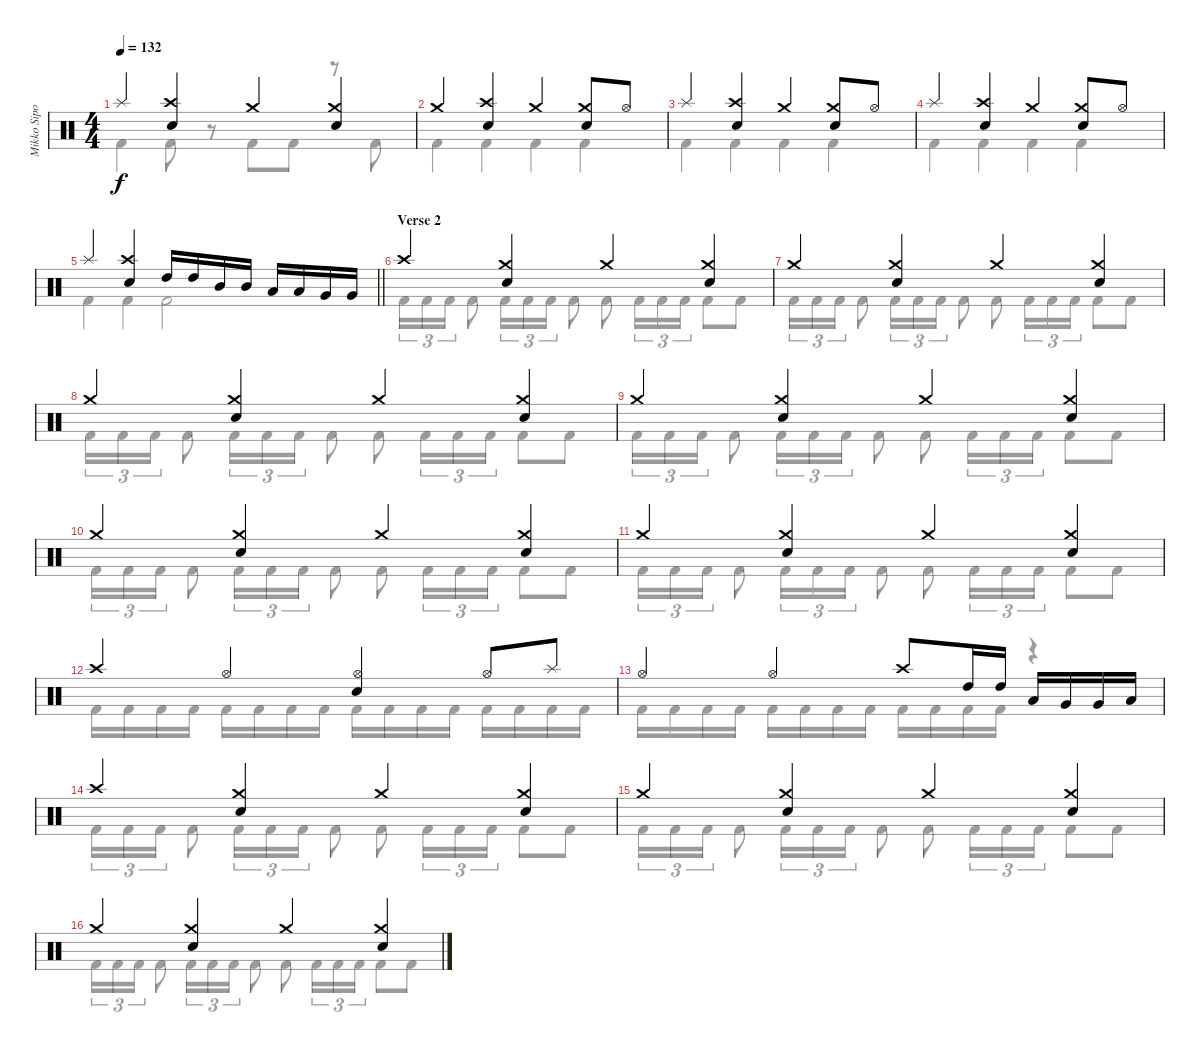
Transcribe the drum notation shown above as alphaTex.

\track ("Mikko Sipola (drums)" "Mikko Sipo") {instrument percussion}
\staff {score}
\articulation defaults
\voice
\ts (4 4)
\tempo 132
\clef neutral
\ks c "Splash (hit)".4{dy f}
("Electric Snare (hit)" "Crash high (hit)").4 "Crash medium (hit)".4 ("Electric Snare (hit)" "Crash medium (hit)").4 |
"Crash medium (hit)".4 ("Electric Snare (hit)" "Crash high (hit)").4 "Crash medium (hit)".4 ("Electric Snare (hit)" "Crash medium (hit)").8 "Hi-Hat (open)".8 |
"Splash (hit)".4 ("Electric Snare (hit)" "Crash high (hit)").4 "Crash medium (hit)".4 ("Electric Snare (hit)" "Crash medium (hit)").8 "Hi-Hat (open)".8 |
"Splash (hit)".4 ("Electric Snare (hit)" "Crash high (hit)").4 "Crash medium (hit)".4 ("Electric Snare (hit)" "Crash medium (hit)").8 "Hi-Hat (open)".8 |
\barLineRight lightlight "Splash (hit)".4
("Electric Snare (hit)" "Crash high (hit)").4 "High Tom (hit)".16 "High Tom (hit)".16 "Mid Tom (hit)".16 "Mid Tom (hit)".16 "Low Tom (hit)".16 "Low Tom (hit)".16 "Very Low Tom (hit)".16 "Very Low Tom (hit)".16 |
\section ("" "Verse 2")
"Crash high (hit)".4 ("Crash medium (hit)" "Electric Snare (hit)").4 "Crash medium (hit)".4 ("Crash medium (hit)" "Electric Snare (hit)").4 |
"Crash medium (hit)".4 ("Crash medium (hit)" "Electric Snare (hit)").4 "Crash medium (hit)".4 ("Crash medium (hit)" "Electric Snare (hit)").4 |
"Crash medium (hit)".4 ("Crash medium (hit)" "Electric Snare (hit)").4 "Crash medium (hit)".4 ("Crash medium (hit)" "Electric Snare (hit)").4 |
"Crash medium (hit)".4 ("Crash medium (hit)" "Electric Snare (hit)").4 "Crash medium (hit)".4 ("Crash medium (hit)" "Electric Snare (hit)").4 |
"Crash medium (hit)".4 ("Crash medium (hit)" "Electric Snare (hit)").4 "Crash medium (hit)".4 ("Crash medium (hit)" "Electric Snare (hit)").4 |
"Crash medium (hit)".4 ("Crash medium (hit)" "Electric Snare (hit)").4 "Crash medium (hit)".4 ("Crash medium (hit)" "Electric Snare (hit)").4 |
"Crash high (hit)".4 "Hi-Hat (open)".4 ("Hi-Hat (open)" "Electric Snare (hit)").4 "Hi-Hat (open)".8 "Splash (hit)".8 |
"Hi-Hat (open)".4 "Hi-Hat (open)".4 "Crash high (hit)".8 "High Tom (hit)".16 "High Tom (hit)".16 "Low Tom (hit)".16 "Very Low Tom (hit)".16 "Very Low Tom (hit)".16 "Low Floor Tom (hit)".16 |
"Crash high (hit)".4 ("Crash medium (hit)" "Electric Snare (hit)").4 "Crash medium (hit)".4 ("Crash medium (hit)" "Electric Snare (hit)").4 |
"Crash medium (hit)".4 ("Crash medium (hit)" "Electric Snare (hit)").4 "Crash medium (hit)".4 ("Crash medium (hit)" "Electric Snare (hit)").4 |
"Crash medium (hit)".4 ("Crash medium (hit)" "Electric Snare (hit)").4 "Crash medium (hit)".4 ("Crash medium (hit)" "Electric Snare (hit)").4
\voice
\clef neutral
\ottava regular
\simile none
\ks c "Kick (hit) 2".4{dy f} "Kick (hit) 2".8
r.8 "Kick (hit) 2".8 "Kick (hit) 2".8 r.8 "Kick (hit) 2".8 |
"Kick (hit) 2".4 "Kick (hit) 2".4 "Kick (hit) 2".4 "Kick (hit) 2".4 |
"Kick (hit) 2".4 "Kick (hit) 2".4 "Kick (hit) 2".4 "Kick (hit) 2".4 |
"Kick (hit) 2".4 "Kick (hit) 2".4 "Kick (hit) 2".4 "Kick (hit) 2".4 |
\barLineRight lightlight "Kick (hit) 2".4 "Kick (hit) 2".4 "Kick (hit) 2".2
|
"Kick (hit) 2".16{tu (3 2)} "Kick (hit) 2".16{tu (3 2)} "Kick (hit) 2".16{tu (3 2)} "Kick (hit) 2".8 "Kick (hit) 2".16{tu (3 2)} "Kick (hit) 2".16{tu (3 2)} "Kick (hit) 2".16{tu (3 2)} "Kick (hit) 2".8 "Kick (hit) 2".8 "Kick (hit) 2".16{tu (3 2)} "Kick (hit) 2".16{tu (3 2)} "Kick (hit) 2".16{tu (3 2)} "Kick (hit) 2".8 "Kick (hit) 2".8 |
"Kick (hit) 2".16{tu (3 2)} "Kick (hit) 2".16{tu (3 2)} "Kick (hit) 2".16{tu (3 2)} "Kick (hit) 2".8 "Kick (hit) 2".16{tu (3 2)} "Kick (hit) 2".16{tu (3 2)} "Kick (hit) 2".16{tu (3 2)} "Kick (hit) 2".8 "Kick (hit) 2".8 "Kick (hit) 2".16{tu (3 2)} "Kick (hit) 2".16{tu (3 2)} "Kick (hit) 2".16{tu (3 2)} "Kick (hit) 2".8 "Kick (hit) 2".8 |
"Kick (hit) 2".16{tu (3 2)} "Kick (hit) 2".16{tu (3 2)} "Kick (hit) 2".16{tu (3 2)} "Kick (hit) 2".8 "Kick (hit) 2".16{tu (3 2)} "Kick (hit) 2".16{tu (3 2)} "Kick (hit) 2".16{tu (3 2)} "Kick (hit) 2".8 "Kick (hit) 2".8 "Kick (hit) 2".16{tu (3 2)} "Kick (hit) 2".16{tu (3 2)} "Kick (hit) 2".16{tu (3 2)} "Kick (hit) 2".8 "Kick (hit) 2".8 |
"Kick (hit) 2".16{tu (3 2)} "Kick (hit) 2".16{tu (3 2)} "Kick (hit) 2".16{tu (3 2)} "Kick (hit) 2".8 "Kick (hit) 2".16{tu (3 2)} "Kick (hit) 2".16{tu (3 2)} "Kick (hit) 2".16{tu (3 2)} "Kick (hit) 2".8 "Kick (hit) 2".8 "Kick (hit) 2".16{tu (3 2)} "Kick (hit) 2".16{tu (3 2)} "Kick (hit) 2".16{tu (3 2)} "Kick (hit) 2".8 "Kick (hit) 2".8 |
"Kick (hit) 2".16{tu (3 2)} "Kick (hit) 2".16{tu (3 2)} "Kick (hit) 2".16{tu (3 2)} "Kick (hit) 2".8 "Kick (hit) 2".16{tu (3 2)} "Kick (hit) 2".16{tu (3 2)} "Kick (hit) 2".16{tu (3 2)} "Kick (hit) 2".8 "Kick (hit) 2".8 "Kick (hit) 2".16{tu (3 2)} "Kick (hit) 2".16{tu (3 2)} "Kick (hit) 2".16{tu (3 2)} "Kick (hit) 2".8 "Kick (hit) 2".8 |
"Kick (hit) 2".16{tu (3 2)} "Kick (hit) 2".16{tu (3 2)} "Kick (hit) 2".16{tu (3 2)} "Kick (hit) 2".8 "Kick (hit) 2".16{tu (3 2)} "Kick (hit) 2".16{tu (3 2)} "Kick (hit) 2".16{tu (3 2)} "Kick (hit) 2".8 "Kick (hit) 2".8 "Kick (hit) 2".16{tu (3 2)} "Kick (hit) 2".16{tu (3 2)} "Kick (hit) 2".16{tu (3 2)} "Kick (hit) 2".8 "Kick (hit) 2".8 |
"Kick (hit) 2".16 "Kick (hit) 2".16 "Kick (hit) 2".16 "Kick (hit) 2".16 "Kick (hit) 2".16 "Kick (hit) 2".16 "Kick (hit) 2".16 "Kick (hit) 2".16 "Kick (hit) 2".16 "Kick (hit) 2".16 "Kick (hit) 2".16 "Kick (hit) 2".16 "Kick (hit) 2".16 "Kick (hit) 2".16 "Kick (hit) 2".16 "Kick (hit) 2".16 |
"Kick (hit) 2".16 "Kick (hit) 2".16 "Kick (hit) 2".16 "Kick (hit) 2".16 "Kick (hit) 2".16 "Kick (hit) 2".16 "Kick (hit) 2".16 "Kick (hit) 2".16 "Kick (hit) 2".16 "Kick (hit) 2".16 "Kick (hit) 2".16 "Kick (hit) 2".16 r.4 |
"Kick (hit) 2".16{tu (3 2)} "Kick (hit) 2".16{tu (3 2)} "Kick (hit) 2".16{tu (3 2)} "Kick (hit) 2".8 "Kick (hit) 2".16{tu (3 2)} "Kick (hit) 2".16{tu (3 2)} "Kick (hit) 2".16{tu (3 2)} "Kick (hit) 2".8 "Kick (hit) 2".8 "Kick (hit) 2".16{tu (3 2)} "Kick (hit) 2".16{tu (3 2)} "Kick (hit) 2".16{tu (3 2)} "Kick (hit) 2".8 "Kick (hit) 2".8 |
"Kick (hit) 2".16{tu (3 2)} "Kick (hit) 2".16{tu (3 2)} "Kick (hit) 2".16{tu (3 2)} "Kick (hit) 2".8 "Kick (hit) 2".16{tu (3 2)} "Kick (hit) 2".16{tu (3 2)} "Kick (hit) 2".16{tu (3 2)} "Kick (hit) 2".8 "Kick (hit) 2".8 "Kick (hit) 2".16{tu (3 2)} "Kick (hit) 2".16{tu (3 2)} "Kick (hit) 2".16{tu (3 2)} "Kick (hit) 2".8 "Kick (hit) 2".8 |
"Kick (hit) 2".16{tu (3 2)} "Kick (hit) 2".16{tu (3 2)} "Kick (hit) 2".16{tu (3 2)} "Kick (hit) 2".8 "Kick (hit) 2".16{tu (3 2)} "Kick (hit) 2".16{tu (3 2)} "Kick (hit) 2".16{tu (3 2)} "Kick (hit) 2".8 "Kick (hit) 2".8 "Kick (hit) 2".16{tu (3 2)} "Kick (hit) 2".16{tu (3 2)} "Kick (hit) 2".16{tu (3 2)} "Kick (hit) 2".8 "Kick (hit) 2".8
